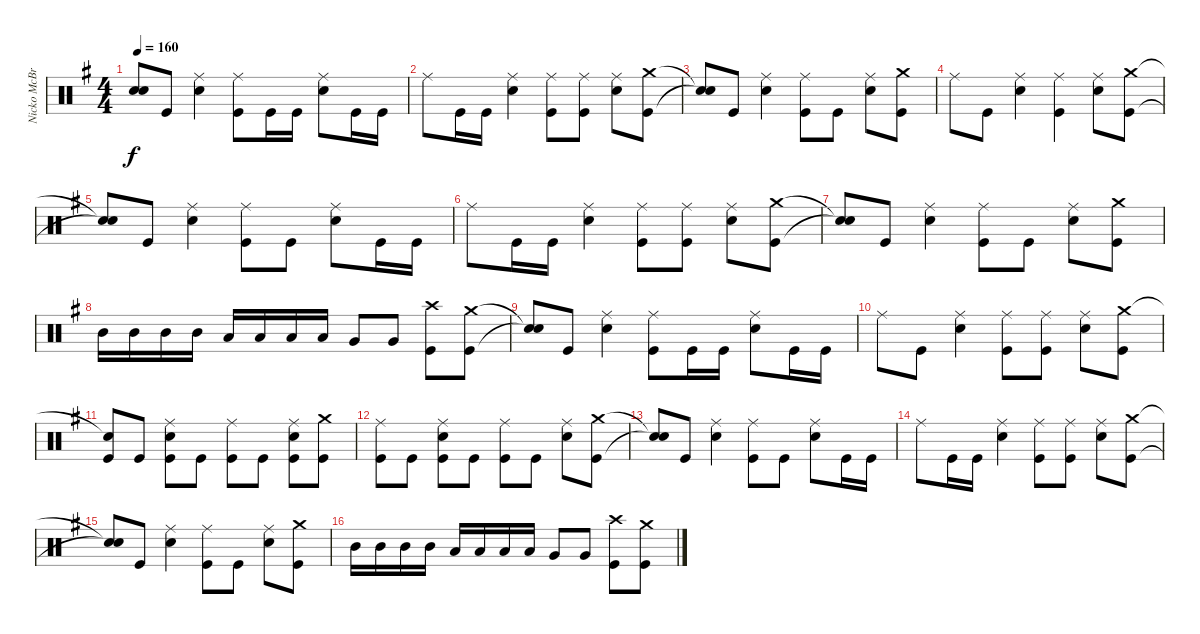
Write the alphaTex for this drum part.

\track ("Nicko McBrain" "Nicko McBr") {instrument percussion}
\staff {score}
\articulation defaults
\ts (4 4)
\tempo 160
\clef neutral
\ks g
("Snare (hit)"{t} "Snare (hit)"{t}).8{dy f} "Kick (hit)".8 ("Electric Snare (hit)" "Ride (middle)").4 ("Kick (hit)" "Ride (middle)").8 "Kick (hit)".16 "Kick (hit)".16 ("Electric Snare (hit)" "Ride (middle)").8 "Kick (hit)".16 "Kick (hit)".16 |
"Ride (middle)".8 "Kick (hit)".16 "Kick (hit)".16 ("Electric Snare (hit)" "Ride (middle)").4 ("Kick (hit)" "Ride (middle)").8 ("Kick (hit)" "Ride (middle)").8 ("Electric Snare (hit)" "Ride (middle)").8 ("Kick (hit)" "Crash medium (hit)").8 |
("Snare (hit)"{t} "Snare (hit)"{t}).8 "Kick (hit)".8 ("Electric Snare (hit)" "Ride (middle)").4 ("Kick (hit)" "Ride (middle)").8 "Kick (hit)".8 ("Electric Snare (hit)" "Ride (middle)").8 ("Kick (hit)" "Crash medium (hit)").8 |
"Ride (middle)".8 "Kick (hit)".8 ("Electric Snare (hit)" "Ride (middle)").4 ("Kick (hit)" "Ride (middle)").4 ("Electric Snare (hit)" "Ride (middle)").8 ("Kick (hit)" "Crash medium (hit)").8 |
("Snare (hit)"{t} "Snare (hit)"{t}).8 "Kick (hit)".8 ("Electric Snare (hit)" "Ride (middle)").4 ("Kick (hit)" "Ride (middle)").8 "Kick (hit)".8 ("Electric Snare (hit)" "Ride (middle)").8 "Kick (hit)".16 "Kick (hit)".16 |
"Ride (middle)".8 "Kick (hit)".16 "Kick (hit)".16 ("Electric Snare (hit)" "Ride (middle)").4 ("Kick (hit)" "Ride (middle)").8 ("Kick (hit)" "Ride (middle)").8 ("Electric Snare (hit)" "Ride (middle)").8 ("Kick (hit)" "Crash medium (hit)").8 |
("Snare (hit)"{t} "Snare (hit)"{t}).8 "Kick (hit)".8 ("Electric Snare (hit)" "Ride (middle)").4 ("Kick (hit)" "Ride (middle)").8 "Kick (hit)".8 ("Electric Snare (hit)" "Ride (middle)").8 ("Kick (hit)" "Crash medium (hit)").8 |
"Mid Tom (hit)".16 "Mid Tom (hit)".16 "Mid Tom (hit)".16 "Mid Tom (hit)".16 "Low Tom (hit)".16 "Low Tom (hit)".16 "Low Tom (hit)".16 "Low Tom (hit)".16 "Very Low Tom (hit)".8 "Very Low Tom (hit)".8 ("Kick (hit)" "Crash high (hit)").8 ("Kick (hit)" "Crash medium (hit)").8 |
("Snare (hit)"{t} "Snare (hit)"{t}).8 "Kick (hit)".8 ("Electric Snare (hit)" "Ride (middle)").4 ("Kick (hit)" "Ride (middle)").8 "Kick (hit)".16 "Kick (hit)".16 ("Electric Snare (hit)" "Ride (middle)").8 "Kick (hit)".16 "Kick (hit)".16 |
"Ride (middle)".8 "Kick (hit)".8 ("Electric Snare (hit)" "Ride (middle)").4 ("Kick (hit)" "Ride (middle)").8 ("Kick (hit)" "Ride (middle)").8 ("Electric Snare (hit)" "Ride (middle)").8 ("Kick (hit)" "Crash medium (hit)").8 |
("Kick (hit)" "Snare (hit)"{t}).8 "Kick (hit)".8 ("Electric Snare (hit)" "Kick (hit)" "Ride (middle)").8 "Kick (hit)".8 ("Kick (hit)" "Ride (middle)").8 "Kick (hit)".8 ("Electric Snare (hit)" "Kick (hit)" "Ride (middle)").8 ("Kick (hit)" "Crash medium (hit)").8 |
("Kick (hit)" "Ride (middle)").8 "Kick (hit)".8 ("Kick (hit)" "Electric Snare (hit)" "Ride (middle)").8 "Kick (hit)".8 ("Kick (hit)" "Ride (middle)").8 "Kick (hit)".8 ("Electric Snare (hit)" "Ride (middle)").8 ("Kick (hit)" "Crash medium (hit)").8 |
("Snare (hit)"{t} "Snare (hit)"{t}).8 "Kick (hit)".8 ("Electric Snare (hit)" "Ride (middle)").4 ("Kick (hit)" "Ride (middle)").8 "Kick (hit)".8 ("Electric Snare (hit)" "Ride (middle)").8 "Kick (hit)".16 "Kick (hit)".16 |
"Ride (middle)".8 "Kick (hit)".16 "Kick (hit)".16 ("Electric Snare (hit)" "Ride (middle)").4 ("Kick (hit)" "Ride (middle)").8 ("Kick (hit)" "Ride (middle)").8 ("Electric Snare (hit)" "Ride (middle)").8 ("Kick (hit)" "Crash medium (hit)").8 |
("Snare (hit)"{t} "Snare (hit)"{t}).8 "Kick (hit)".8 ("Electric Snare (hit)" "Ride (middle)").4 ("Kick (hit)" "Ride (middle)").8 "Kick (hit)".8 ("Electric Snare (hit)" "Ride (middle)").8 ("Kick (hit)" "Crash medium (hit)").8 |
"Mid Tom (hit)".16 "Mid Tom (hit)".16 "Mid Tom (hit)".16 "Mid Tom (hit)".16 "Low Tom (hit)".16 "Low Tom (hit)".16 "Low Tom (hit)".16 "Low Tom (hit)".16 "Very Low Tom (hit)".8 "Very Low Tom (hit)".8 ("Kick (hit)" "Crash high (hit)").8 ("Kick (hit)" "Crash medium (hit)").8
